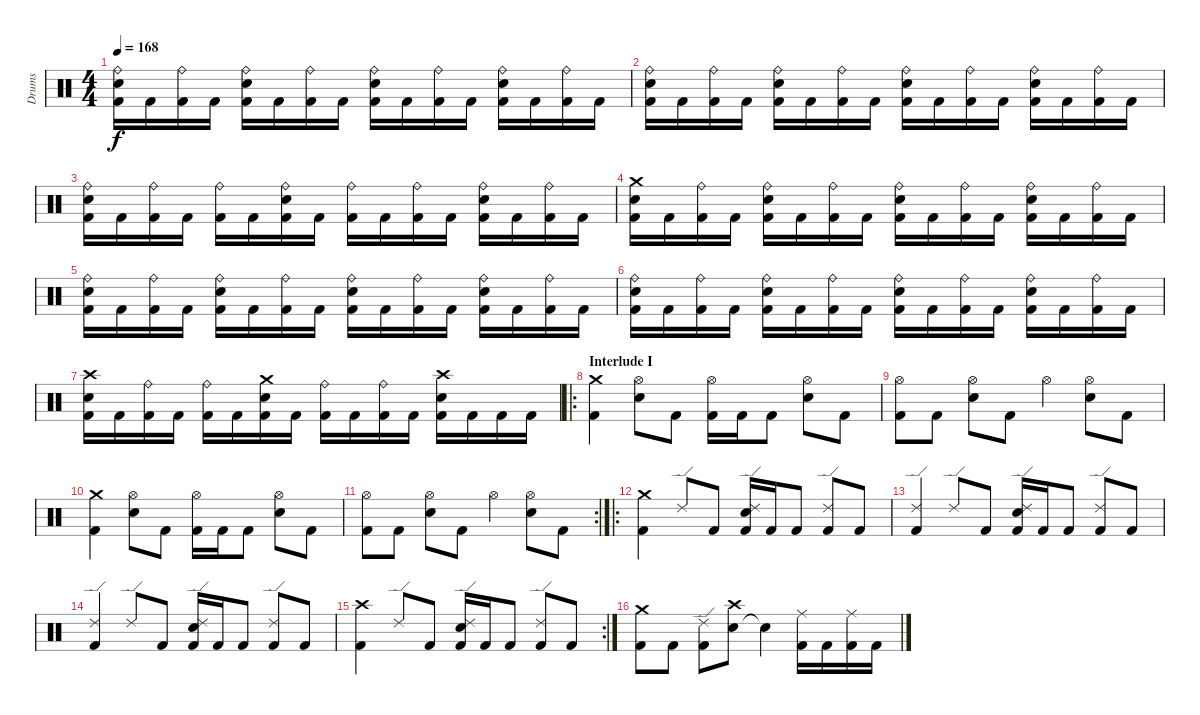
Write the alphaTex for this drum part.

\track ("Drums" "Drums") {instrument percussion}
\staff {score}
\articulation defaults
\ts (4 4)
\tempo 168
\clef neutral
\ks c
("Kick (hit) 2" "Snare (hit) 2" "Ride (bell)").16{dy f} "Kick (hit) 2".16 ("Kick (hit) 2" "Ride (bell)").16 "Kick (hit) 2".16 ("Kick (hit) 2" "Snare (hit) 2" "Ride (bell)").16 "Kick (hit) 2".16 ("Kick (hit) 2" "Ride (bell)").16 "Kick (hit) 2".16 ("Kick (hit) 2" "Snare (hit) 2" "Ride (bell)").16 "Kick (hit) 2".16 ("Kick (hit) 2" "Ride (bell)").16 "Kick (hit) 2".16 ("Kick (hit) 2" "Snare (hit) 2" "Ride (bell)").16 "Kick (hit) 2".16 ("Kick (hit) 2" "Ride (bell)").16 "Kick (hit) 2".16 |
("Kick (hit) 2" "Snare (hit) 2" "Ride (bell)").16 "Kick (hit) 2".16 ("Kick (hit) 2" "Ride (bell)").16 "Kick (hit) 2".16 ("Kick (hit) 2" "Snare (hit) 2" "Ride (bell)").16 "Kick (hit) 2".16 ("Kick (hit) 2" "Ride (bell)").16 "Kick (hit) 2".16 ("Kick (hit) 2" "Snare (hit) 2" "Ride (bell)").16 "Kick (hit) 2".16 ("Kick (hit) 2" "Ride (bell)").16 "Kick (hit) 2".16 ("Kick (hit) 2" "Snare (hit) 2" "Ride (bell)").16 "Kick (hit) 2".16 ("Kick (hit) 2" "Ride (bell)").16 "Kick (hit) 2".16 |
("Kick (hit) 2" "Snare (hit) 2" "Ride (bell)").16 "Kick (hit) 2".16 ("Kick (hit) 2" "Ride (bell)").16 "Kick (hit) 2".16 ("Kick (hit) 2" "Ride (bell)").16 "Kick (hit) 2".16 ("Kick (hit) 2" "Snare (hit) 2" "Ride (bell)").16 "Kick (hit) 2".16 ("Kick (hit) 2" "Ride (bell)").16 "Kick (hit) 2".16 ("Kick (hit) 2" "Ride (bell)").16 "Kick (hit) 2".16 ("Kick (hit) 2" "Snare (hit) 2" "Ride (bell)").16 "Kick (hit) 2".16 ("Kick (hit) 2" "Ride (bell)").16 "Kick (hit) 2".16 |
("Kick (hit) 2" "Snare (hit) 2" "Crash medium (hit)").16 "Kick (hit) 2".16 ("Kick (hit) 2" "Ride (bell)").16 "Kick (hit) 2".16 ("Kick (hit) 2" "Snare (hit) 2" "Ride (bell)").16 "Kick (hit) 2".16 ("Kick (hit) 2" "Ride (bell)").16 "Kick (hit) 2".16 ("Kick (hit) 2" "Snare (hit) 2" "Ride (bell)").16 "Kick (hit) 2".16 ("Kick (hit) 2" "Ride (bell)").16 "Kick (hit) 2".16 ("Kick (hit) 2" "Snare (hit) 2" "Ride (bell)").16 "Kick (hit) 2".16 ("Kick (hit) 2" "Ride (bell)").16 "Kick (hit) 2".16 |
("Kick (hit) 2" "Snare (hit) 2" "Ride (bell)").16 "Kick (hit) 2".16 ("Kick (hit) 2" "Ride (bell)").16 "Kick (hit) 2".16 ("Kick (hit) 2" "Snare (hit) 2" "Ride (bell)").16 "Kick (hit) 2".16 ("Kick (hit) 2" "Ride (bell)").16 "Kick (hit) 2".16 ("Kick (hit) 2" "Snare (hit) 2" "Ride (bell)").16 "Kick (hit) 2".16 ("Kick (hit) 2" "Ride (bell)").16 "Kick (hit) 2".16 ("Kick (hit) 2" "Snare (hit) 2" "Ride (bell)").16 "Kick (hit) 2".16 ("Kick (hit) 2" "Ride (bell)").16 "Kick (hit) 2".16 |
("Kick (hit) 2" "Snare (hit) 2" "Ride (bell)").16 "Kick (hit) 2".16 ("Kick (hit) 2" "Ride (bell)").16 "Kick (hit) 2".16 ("Kick (hit) 2" "Snare (hit) 2" "Ride (bell)").16 "Kick (hit) 2".16 ("Kick (hit) 2" "Ride (bell)").16 "Kick (hit) 2".16 ("Kick (hit) 2" "Snare (hit) 2" "Ride (bell)").16 "Kick (hit) 2".16 ("Kick (hit) 2" "Ride (bell)").16 "Kick (hit) 2".16 ("Kick (hit) 2" "Snare (hit) 2" "Ride (bell)").16 "Kick (hit) 2".16 ("Kick (hit) 2" "Ride (bell)").16 "Kick (hit) 2".16 |
("Kick (hit) 2" "Snare (hit) 2" "Crash high (hit)").16 "Kick (hit) 2".16 ("Kick (hit) 2" "Ride (bell)").16 "Kick (hit) 2".16 ("Kick (hit) 2" "Ride (bell)").16 "Kick (hit) 2".16 ("Kick (hit) 2" "Snare (hit) 2" "Crash medium (hit)").16 "Kick (hit) 2".16 ("Kick (hit) 2" "Ride (bell)").16 "Kick (hit) 2".16 ("Kick (hit) 2" "Ride (bell)").16 "Kick (hit) 2".16 ("Kick (hit) 2" "Snare (hit) 2" "Crash high (hit)").16 "Kick (hit) 2".16 "Kick (hit) 2".16 "Kick (hit) 2".16 |
\ro
\section ("" "Interlude I")
("Kick (hit) 2" "Crash medium (hit)").4 ("Snare (hit) 2" "Hi-Hat (open)").8 "Kick (hit) 2".8 ("Kick (hit) 2" "Hi-Hat (open)").16 "Kick (hit) 2".16 "Kick (hit) 2".8 ("Snare (hit) 2" "Hi-Hat (open)").8 "Kick (hit) 2".8 |
("Kick (hit) 2" "Hi-Hat (open)").8 "Kick (hit) 2".8 ("Snare (hit) 2" "Hi-Hat (open)").8 "Kick (hit) 2".8 "Hi-Hat (open)".4 ("Snare (hit) 2" "Hi-Hat (open)").8 "Kick (hit) 2".8 |
("Kick (hit) 2" "Crash medium (hit)").4 ("Snare (hit) 2" "Hi-Hat (open)").8 "Kick (hit) 2".8 ("Kick (hit) 2" "Hi-Hat (open)").16 "Kick (hit) 2".16 "Kick (hit) 2".8 ("Snare (hit) 2" "Hi-Hat (open)").8 "Kick (hit) 2".8 |
\rc 2
("Kick (hit) 2" "Hi-Hat (open)").8 "Kick (hit) 2".8 ("Snare (hit) 2" "Hi-Hat (open)").8 "Kick (hit) 2".8 "Hi-Hat (open)".4 ("Snare (hit) 2" "Hi-Hat (open)").8 "Kick (hit) 2".8 |
\ro
("Kick (hit) 2" "Crash medium (hit)").4 "Ride (edge) 2".8 "Kick (hit) 2".8 ("Kick (hit) 2" "Snare (hit) 2" "Ride (edge) 2").16 "Kick (hit) 2".16 "Kick (hit) 2".8 ("Kick (hit) 2" "Ride (edge) 2").8 "Kick (hit) 2".8 |
("Kick (hit) 2" "Ride (edge) 2").4 "Ride (edge) 2".8 "Kick (hit) 2".8 ("Kick (hit) 2" "Snare (hit) 2" "Ride (edge) 2").16 "Kick (hit) 2".16 "Kick (hit) 2".8 ("Kick (hit) 2" "Ride (edge) 2").8 "Kick (hit) 2".8 |
("Kick (hit) 2" "Ride (edge) 2").4 "Ride (edge) 2".8 "Kick (hit) 2".8 ("Kick (hit) 2" "Snare (hit) 2" "Ride (edge) 2").16 "Kick (hit) 2".16 "Kick (hit) 2".8 ("Kick (hit) 2" "Ride (edge) 2").8 "Kick (hit) 2".8 |
\rc 2
("Kick (hit) 2" "Crash high (hit)").4 "Ride (edge) 2".8 "Kick (hit) 2".8 ("Kick (hit) 2" "Snare (hit) 2" "Ride (edge) 2").16 "Kick (hit) 2".16 "Kick (hit) 2".8 ("Kick (hit) 2" "Ride (edge) 2").8 "Kick (hit) 2".8 |
("Kick (hit) 2" "Crash medium (hit)").8 "Kick (hit) 2".8 ("Kick (hit) 2" "Ride (edge) 2").8 ("Snare (hit) 2" "Crash high (hit)").8 "Snare (hit)"{t}.4 ("Kick (hit) 2" "Ride (middle)").16 "Kick (hit) 2".16 ("Kick (hit) 2" "Ride (middle)").16 "Kick (hit) 2".16
